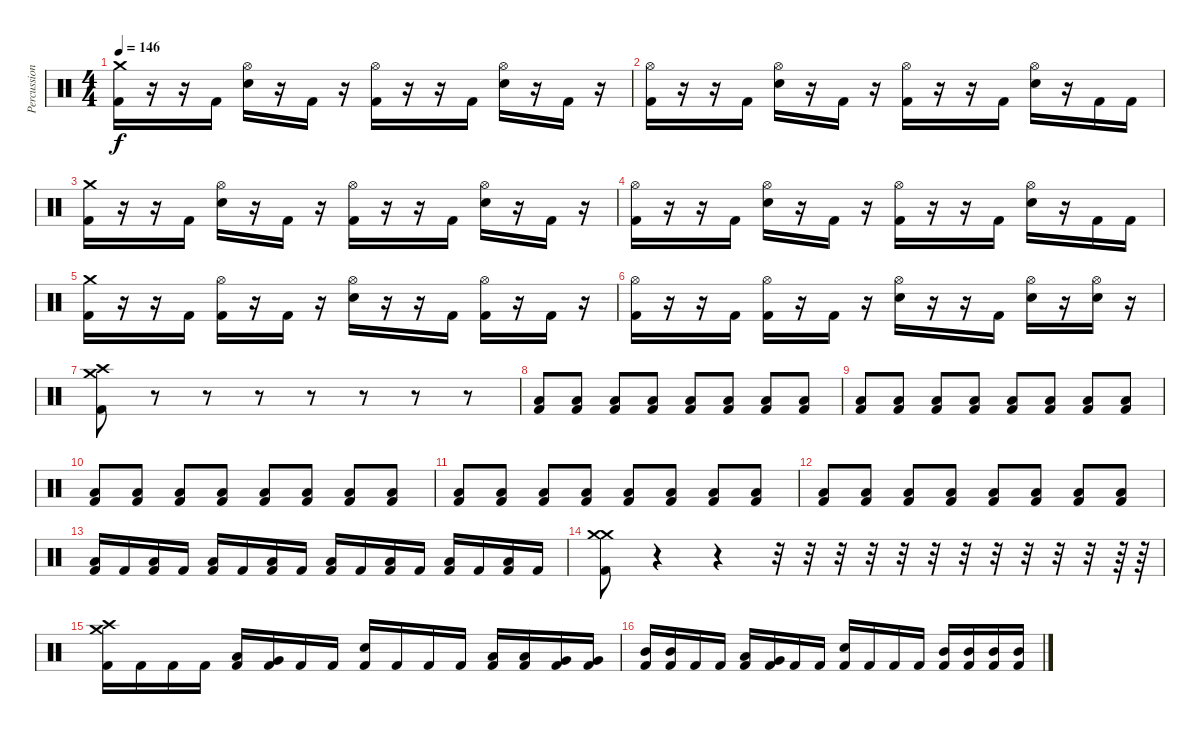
\track ("Percussion" "Percussion") {instrument percussion}
\staff {score}
\articulation defaults
\ts (4 4)
\tempo 146
\clef neutral
\ks c
("Crash medium (hit)" "Kick (hit) 2").16{dy f} r.16 r.16 "Kick (hit) 2".16 ("Hi-Hat (open)" "Snare (hit) 2").16 r.16 "Kick (hit) 2".16 r.16 ("Hi-Hat (open)" "Kick (hit) 2").16 r.16 r.16 "Kick (hit) 2".16 ("Hi-Hat (open)" "Snare (hit) 2").16 r.16 "Kick (hit) 2".16 r.16 |
("Hi-Hat (open)" "Kick (hit) 2").16 r.16 r.16 "Kick (hit) 2".16 ("Hi-Hat (open)" "Snare (hit) 2").16 r.16 "Kick (hit) 2".16 r.16 ("Hi-Hat (open)" "Kick (hit) 2").16 r.16 r.16 "Kick (hit) 2".16 ("Hi-Hat (open)" "Snare (hit) 2").16 r.16 "Kick (hit) 2".16 "Kick (hit) 2".16 |
("Crash medium (hit)" "Kick (hit) 2").16 r.16 r.16 "Kick (hit) 2".16 ("Hi-Hat (open)" "Snare (hit) 2").16 r.16 "Kick (hit) 2".16 r.16 ("Hi-Hat (open)" "Kick (hit) 2").16 r.16 r.16 "Kick (hit) 2".16 ("Hi-Hat (open)" "Snare (hit) 2").16 r.16 "Kick (hit) 2".16 r.16 |
("Hi-Hat (open)" "Kick (hit) 2").16 r.16 r.16 "Kick (hit) 2".16 ("Hi-Hat (open)" "Snare (hit) 2").16 r.16 "Kick (hit) 2".16 r.16 ("Hi-Hat (open)" "Kick (hit) 2").16 r.16 r.16 "Kick (hit) 2".16 ("Hi-Hat (open)" "Snare (hit) 2").16 r.16 "Kick (hit) 2".16 "Kick (hit) 2".16 |
("Crash medium (hit)" "Kick (hit) 2").16 r.16 r.16 "Kick (hit) 2".16 ("Hi-Hat (open)" "Kick (hit) 2").16 r.16 "Kick (hit) 2".16 r.16 ("Hi-Hat (open)" "Snare (hit) 2").16 r.16 r.16 "Kick (hit) 2".16 ("Hi-Hat (open)" "Kick (hit) 2").16 r.16 "Kick (hit) 2".16 r.16 |
("Hi-Hat (open)" "Kick (hit) 2").16 r.16 r.16 "Kick (hit) 2".16 ("Hi-Hat (open)" "Kick (hit) 2").16 r.16 "Kick (hit) 2".16 r.16 ("Hi-Hat (open)" "Snare (hit) 2").16 r.16 r.16 "Kick (hit) 2".16 ("Hi-Hat (open)" "Snare (hit) 2").16 r.16 ("Hi-Hat (open)" "Snare (hit) 2").16 r.16 |
("Crash high (hit)" "Crash medium (hit)" "Kick (hit) 2").8 r.8 r.8 r.8 r.8 r.8 r.8 r.8{volume 5} |
("Low Floor Tom (hit)" "Kick (hit) 2").8{volume 13} ("Low Floor Tom (hit)" "Kick (hit) 2").8 ("Low Floor Tom (hit)" "Kick (hit) 2").8 ("Low Floor Tom (hit)" "Kick (hit) 2").8 ("Low Floor Tom (hit)" "Kick (hit) 2").8 ("Low Floor Tom (hit)" "Kick (hit) 2").8 ("Low Floor Tom (hit)" "Kick (hit) 2").8 ("Low Floor Tom (hit)" "Kick (hit) 2").8 |
("Low Floor Tom (hit)" "Kick (hit) 2").8 ("Low Floor Tom (hit)" "Kick (hit) 2").8 ("Low Floor Tom (hit)" "Kick (hit) 2").8 ("Low Floor Tom (hit)" "Kick (hit) 2").8 ("Low Floor Tom (hit)" "Kick (hit) 2").8 ("Low Floor Tom (hit)" "Kick (hit) 2").8 ("Low Floor Tom (hit)" "Kick (hit) 2").8 ("Low Floor Tom (hit)" "Kick (hit) 2").8 |
("Low Floor Tom (hit)" "Kick (hit) 2").8 ("Low Floor Tom (hit)" "Kick (hit) 2").8 ("Low Floor Tom (hit)" "Kick (hit) 2").8 ("Low Floor Tom (hit)" "Kick (hit) 2").8 ("Low Floor Tom (hit)" "Kick (hit) 2").8 ("Low Floor Tom (hit)" "Kick (hit) 2").8 ("Low Floor Tom (hit)" "Kick (hit) 2").8 ("Low Floor Tom (hit)" "Kick (hit) 2").8 |
("Low Floor Tom (hit)" "Kick (hit) 2").8 ("Low Floor Tom (hit)" "Kick (hit) 2").8 ("Low Floor Tom (hit)" "Kick (hit) 2").8 ("Low Floor Tom (hit)" "Kick (hit) 2").8 ("Low Floor Tom (hit)" "Kick (hit) 2").8 ("Low Floor Tom (hit)" "Kick (hit) 2").8 ("Low Floor Tom (hit)" "Kick (hit) 2").8 ("Low Floor Tom (hit)" "Kick (hit) 2").8 |
("Low Floor Tom (hit)" "Kick (hit) 2").8 ("Low Floor Tom (hit)" "Kick (hit) 2").8 ("Low Floor Tom (hit)" "Kick (hit) 2").8 ("Low Floor Tom (hit)" "Kick (hit) 2").8 ("Low Floor Tom (hit)" "Kick (hit) 2").8 ("Low Floor Tom (hit)" "Kick (hit) 2").8 ("Low Floor Tom (hit)" "Kick (hit) 2").8 ("Low Floor Tom (hit)" "Kick (hit) 2").8 |
("Low Floor Tom (hit)" "Kick (hit) 2").16 "Kick (hit) 2".16 ("Low Floor Tom (hit)" "Kick (hit) 2").16 "Kick (hit) 2".16 ("Low Floor Tom (hit)" "Kick (hit) 2").16 "Kick (hit) 2".16 ("Low Floor Tom (hit)" "Kick (hit) 2").16 "Kick (hit) 2".16 ("Low Floor Tom (hit)" "Kick (hit) 2").16 "Kick (hit) 2".16 ("Low Floor Tom (hit)" "Kick (hit) 2").16 "Kick (hit) 2".16 ("Low Floor Tom (hit)" "Kick (hit) 2").16 "Kick (hit) 2".16 ("Low Floor Tom (hit)" "Kick (hit) 2").16 "Kick (hit) 2".16 |
("Crash medium (hit)" "Crash medium (hit)" "Kick (hit) 2").8 r.4{volume 0} r.4 r.32 r.32 r.32 r.32 r.32 r.32 r.32 r.32 r.32 r.32 r.32 r.64 r.64{volume 13} |
("Crash high (hit)" "Crash medium (hit)" "Kick (hit) 2").16 "Kick (hit) 2".16 "Kick (hit) 2".16 "Kick (hit) 2".16 ("Low Tom (hit)" "Kick (hit) 2").16 ("Very Low Tom (hit)" "Kick (hit) 2").16 "Kick (hit) 2".16 "Kick (hit) 2".16 ("Snare (hit) 2" "Kick (hit) 2").16 "Kick (hit) 2".16 "Kick (hit) 2".16 "Kick (hit) 2".16 ("Low Tom (hit)" "Kick (hit) 2").16 ("Low Tom (hit)" "Kick (hit) 2").16 ("Very Low Tom (hit)" "Kick (hit) 2").16 ("Very Low Tom (hit)" "Kick (hit) 2").16 |
("Mid Tom (hit)" "Kick (hit) 2").16 ("Mid Tom (hit)" "Kick (hit) 2").16 "Kick (hit) 2".16 "Kick (hit) 2".16 ("Low Tom (hit)" "Kick (hit) 2").16 ("Very Low Tom (hit)" "Kick (hit) 2").16 "Kick (hit) 2".16 "Kick (hit) 2".16 ("Snare (hit) 2" "Kick (hit) 2").16 "Kick (hit) 2".16 "Kick (hit) 2".16 "Kick (hit) 2".16 ("Mid Tom (hit)" "Kick (hit) 2").16 ("Mid Tom (hit)" "Kick (hit) 2").16 ("Mid Tom (hit)" "Kick (hit) 2").16 ("Mid Tom (hit)" "Kick (hit) 2").16
